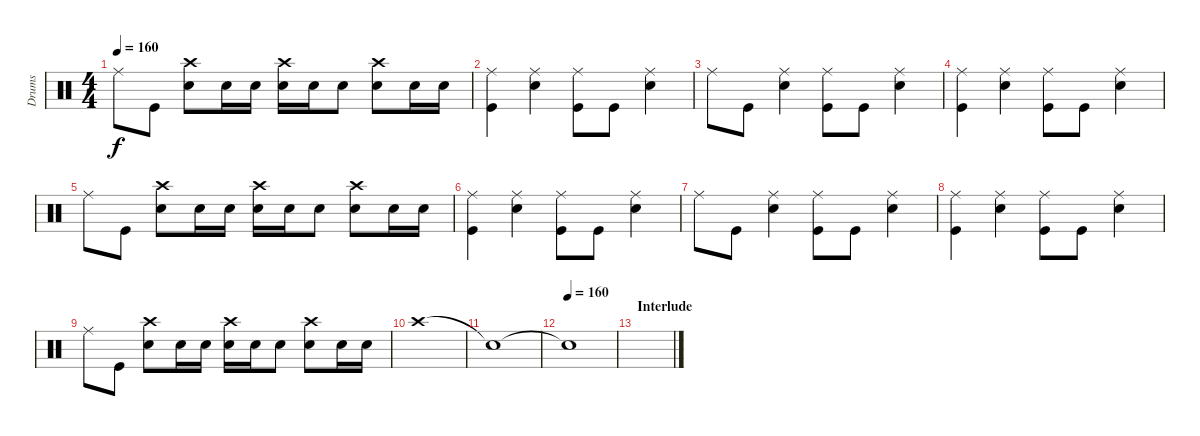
\track ("Drums" "Drums") {instrument percussion}
\staff {score}
\articulation defaults
\ts (4 4)
\tempo 160
\clef neutral
\ks c "Ride (middle)".8{dy f} "Kick (hit)".8
("Electric Snare (hit)" "Crash high (hit)").8 "Electric Snare (hit)".16 "Electric Snare (hit)".16 ("Electric Snare (hit)" "Crash high (hit)").16 "Electric Snare (hit)".16 "Electric Snare (hit)".8 ("Electric Snare (hit)" "Crash high (hit)").8 "Electric Snare (hit)".16 "Electric Snare (hit)".16 |
("Ride (middle)" "Kick (hit)").4 ("Ride (middle)" "Electric Snare (hit)").4 ("Ride (middle)" "Kick (hit)").8 "Kick (hit)".8 ("Ride (middle)" "Electric Snare (hit)").4 |
"Ride (middle)".8 "Kick (hit)".8 ("Ride (middle)" "Electric Snare (hit)").4 ("Ride (middle)" "Kick (hit)").8 "Kick (hit)".8 ("Ride (middle)" "Electric Snare (hit)").4 |
("Ride (middle)" "Kick (hit)").4 ("Ride (middle)" "Electric Snare (hit)").4 ("Ride (middle)" "Kick (hit)").8 "Kick (hit)".8 ("Ride (middle)" "Electric Snare (hit)").4 |
"Ride (middle)".8 "Kick (hit)".8 ("Electric Snare (hit)" "Crash high (hit)").8 "Electric Snare (hit)".16 "Electric Snare (hit)".16 ("Electric Snare (hit)" "Crash high (hit)").16 "Electric Snare (hit)".16 "Electric Snare (hit)".8 ("Electric Snare (hit)" "Crash high (hit)").8 "Electric Snare (hit)".16 "Electric Snare (hit)".16 |
("Ride (middle)" "Kick (hit)").4 ("Ride (middle)" "Electric Snare (hit)").4 ("Ride (middle)" "Kick (hit)").8 "Kick (hit)".8 ("Ride (middle)" "Electric Snare (hit)").4 |
"Ride (middle)".8 "Kick (hit)".8 ("Ride (middle)" "Electric Snare (hit)").4 ("Ride (middle)" "Kick (hit)").8 "Kick (hit)".8 ("Ride (middle)" "Electric Snare (hit)").4 |
("Ride (middle)" "Kick (hit)").4 ("Ride (middle)" "Electric Snare (hit)").4 ("Ride (middle)" "Kick (hit)").8 "Kick (hit)".8 ("Ride (middle)" "Electric Snare (hit)").4 |
"Ride (middle)".8 "Kick (hit)".8 ("Electric Snare (hit)" "Crash high (hit)").8 "Electric Snare (hit)".16 "Electric Snare (hit)".16 ("Electric Snare (hit)" "Crash high (hit)").16 "Electric Snare (hit)".16 "Electric Snare (hit)".8 ("Electric Snare (hit)" "Crash high (hit)").8 "Electric Snare (hit)".16 "Electric Snare (hit)".16 |
"Crash high (hit)".1 |
"Snare (hit)"{t}.1 |
\tempo (160)
"Snare (hit)"{t}.1 |
\section ("" "Interlude")
